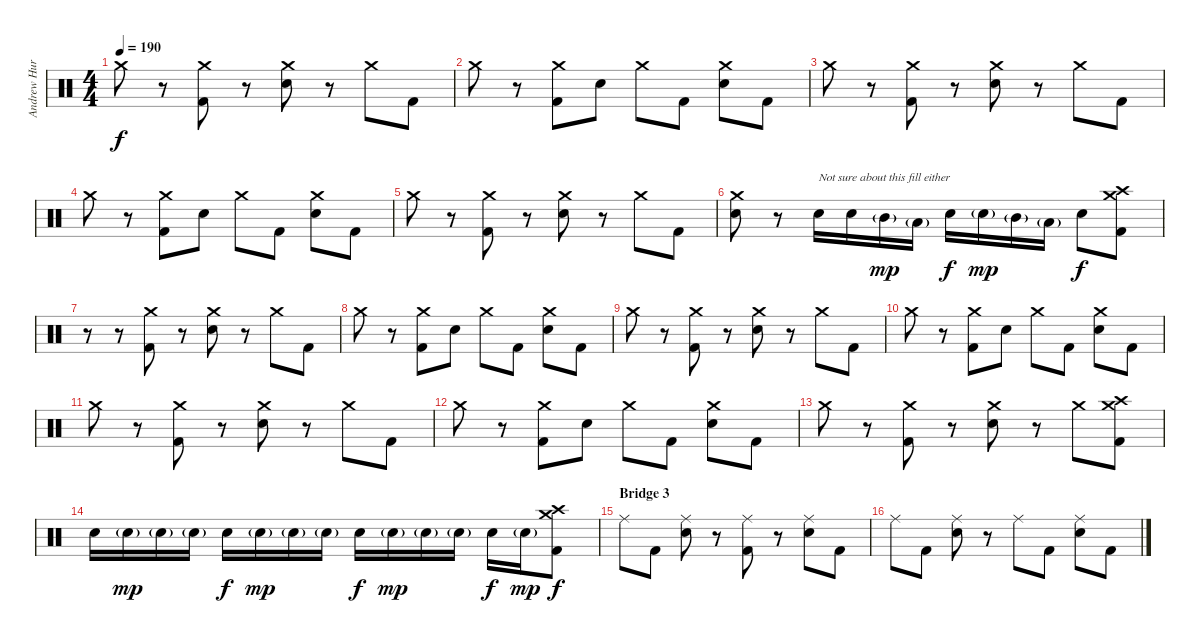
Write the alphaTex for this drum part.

\track ("Andrew Hurley (Drums)" "Andrew Hur") {instrument percussion}
\staff {score}
\articulation defaults
\ts (4 4)
\tempo 190
\clef neutral
\ks c "Crash medium (hit)".8{dy f}
r.8 ("Crash medium (hit)" "Kick (hit) 2").8 r.8 ("Crash medium (hit)" "Electric Snare (hit)").8 r.8 "Crash medium (hit)".8 "Kick (hit) 2".8 |
"Crash medium (hit)".8 r.8 ("Crash medium (hit)" "Kick (hit) 2").8 "Electric Snare (hit)".8 "Crash medium (hit)".8 "Kick (hit) 2".8 ("Crash medium (hit)" "Electric Snare (hit)").8 "Kick (hit) 2".8 |
"Crash medium (hit)".8 r.8 ("Crash medium (hit)" "Kick (hit) 2").8 r.8 ("Crash medium (hit)" "Electric Snare (hit)").8 r.8 "Crash medium (hit)".8 "Kick (hit) 2".8 |
"Crash medium (hit)".8 r.8 ("Crash medium (hit)" "Kick (hit) 2").8 "Electric Snare (hit)".8 "Crash medium (hit)".8 "Kick (hit) 2".8 ("Crash medium (hit)" "Electric Snare (hit)").8 "Kick (hit) 2".8 |
"Crash medium (hit)".8 r.8 ("Crash medium (hit)" "Kick (hit) 2").8 r.8 ("Crash medium (hit)" "Electric Snare (hit)").8 r.8 "Crash medium (hit)".8 "Kick (hit) 2".8 |
("Crash medium (hit)" "Electric Snare (hit)").8 r.8 "Electric Snare (hit)".16{txt "Not sure about this fill either"} "Electric Snare (hit)".16 "Mid Tom (hit)"{g}.16{dy mp} "Low Tom (hit)"{g}.16 "Electric Snare (hit)".16{dy f} "Electric Snare (hit)"{g}.16{dy mp} "Mid Tom (hit)"{g}.16 "Low Tom (hit)"{g}.16 "Electric Snare (hit)".8{dy f} ("Crash medium (hit)" "Crash high (hit)" "Kick (hit) 2").8 |
r.8 r.8 ("Crash medium (hit)" "Kick (hit) 2").8 r.8 ("Crash medium (hit)" "Electric Snare (hit)").8 r.8 "Crash medium (hit)".8 "Kick (hit) 2".8 |
"Crash medium (hit)".8 r.8 ("Crash medium (hit)" "Kick (hit) 2").8 "Electric Snare (hit)".8 "Crash medium (hit)".8 "Kick (hit) 2".8 ("Crash medium (hit)" "Electric Snare (hit)").8 "Kick (hit) 2".8 |
"Crash medium (hit)".8 r.8 ("Crash medium (hit)" "Kick (hit) 2").8 r.8 ("Crash medium (hit)" "Electric Snare (hit)").8 r.8 "Crash medium (hit)".8 "Kick (hit) 2".8 |
"Crash medium (hit)".8 r.8 ("Crash medium (hit)" "Kick (hit) 2").8 "Electric Snare (hit)".8 "Crash medium (hit)".8 "Kick (hit) 2".8 ("Crash medium (hit)" "Electric Snare (hit)").8 "Kick (hit) 2".8 |
"Crash medium (hit)".8 r.8 ("Crash medium (hit)" "Kick (hit) 2").8 r.8 ("Crash medium (hit)" "Electric Snare (hit)").8 r.8 "Crash medium (hit)".8 "Kick (hit) 2".8 |
"Crash medium (hit)".8 r.8 ("Crash medium (hit)" "Kick (hit) 2").8 "Electric Snare (hit)".8 "Crash medium (hit)".8 "Kick (hit) 2".8 ("Crash medium (hit)" "Electric Snare (hit)").8 "Kick (hit) 2".8 |
"Crash medium (hit)".8 r.8 ("Crash medium (hit)" "Kick (hit) 2").8 r.8 ("Crash medium (hit)" "Electric Snare (hit)").8 r.8 "Crash medium (hit)".8 ("Crash medium (hit)" "Crash high (hit)" "Kick (hit) 2").8 |
"Electric Snare (hit)".16 "Electric Snare (hit)"{g}.16{dy mp} "Electric Snare (hit)"{g}.16 "Electric Snare (hit)"{g}.16 "Electric Snare (hit)".16{dy f} "Electric Snare (hit)"{g}.16{dy mp} "Electric Snare (hit)"{g}.16 "Electric Snare (hit)"{g}.16 "Electric Snare (hit)".16{dy f} "Electric Snare (hit)"{g}.16{dy mp} "Electric Snare (hit)"{g}.16 "Electric Snare (hit)"{g}.16 "Electric Snare (hit)".16{dy f} "Electric Snare (hit)"{g}.16{dy mp} ("Crash medium (hit)" "Crash high (hit)" "Kick (hit) 2").8{dy f} |
\section ("" "Bridge 3")
"Ride (middle)".8 "Kick (hit) 2".8 ("Ride (middle)" "Electric Snare (hit)").8 r.8 ("Ride (middle)" "Kick (hit) 2").8 r.8 ("Ride (middle)" "Electric Snare (hit)").8 "Kick (hit) 2".8 |
"Ride (middle)".8 "Kick (hit) 2".8 ("Ride (middle)" "Electric Snare (hit)").8 r.8 "Ride (middle)".8 "Kick (hit) 2".8 ("Ride (middle)" "Electric Snare (hit)").8 "Kick (hit) 2".8
